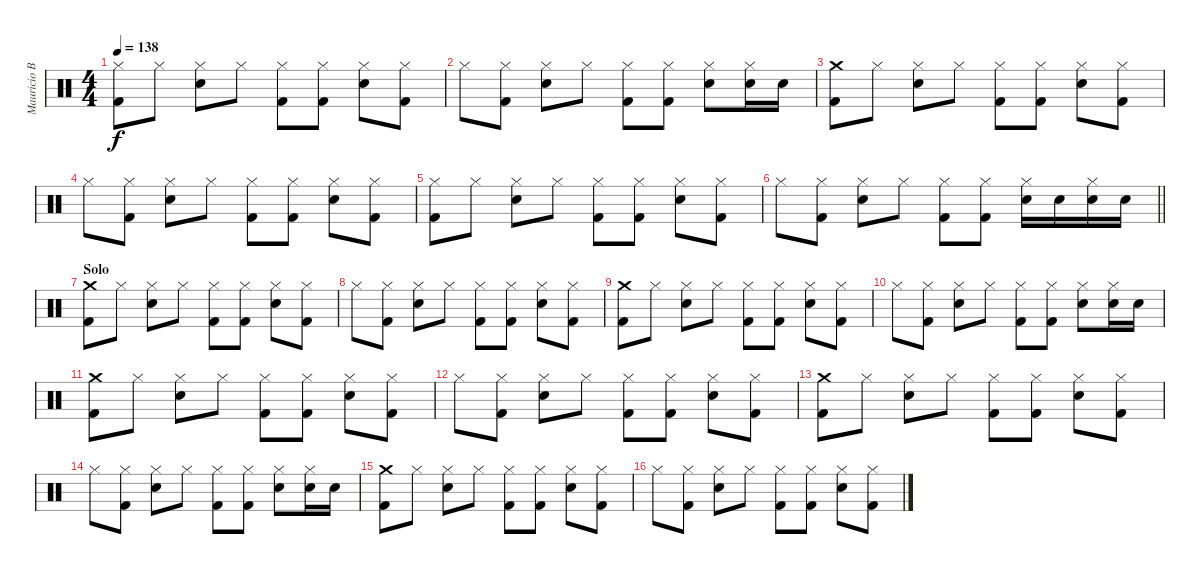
\track ("Mauricio Basualto" "Mauricio B") {instrument percussion}
\staff {score}
\articulation defaults
\ts (4 4)
\tempo 138
\clef neutral
\ks c
("Hi-Hat (closed)" "Kick (hit) 2").8{dy f} "Hi-Hat (closed)".8 ("Hi-Hat (closed)" "Snare (hit) 2").8 "Hi-Hat (closed)".8 ("Hi-Hat (closed)" "Kick (hit) 2").8 ("Hi-Hat (closed)" "Kick (hit) 2").8 ("Hi-Hat (closed)" "Snare (hit) 2").8 ("Hi-Hat (closed)" "Kick (hit) 2").8 |
"Hi-Hat (closed)".8 ("Hi-Hat (closed)" "Kick (hit) 2").8 ("Hi-Hat (closed)" "Snare (hit) 2").8 "Hi-Hat (closed)".8 ("Hi-Hat (closed)" "Kick (hit) 2").8 ("Hi-Hat (closed)" "Kick (hit) 2").8 ("Hi-Hat (closed)" "Snare (hit) 2").8 ("Hi-Hat (closed)" "Snare (hit) 2").16 "Snare (hit) 2".16 |
("Crash medium (hit)" "Kick (hit) 2").8 "Hi-Hat (closed)".8 ("Hi-Hat (closed)" "Snare (hit) 2").8 "Hi-Hat (closed)".8 ("Hi-Hat (closed)" "Kick (hit) 2").8 ("Hi-Hat (closed)" "Kick (hit) 2").8 ("Hi-Hat (closed)" "Snare (hit) 2").8 ("Hi-Hat (closed)" "Kick (hit) 2").8 |
"Hi-Hat (closed)".8 ("Hi-Hat (closed)" "Kick (hit) 2").8 ("Hi-Hat (closed)" "Snare (hit) 2").8 "Hi-Hat (closed)".8 ("Hi-Hat (closed)" "Kick (hit) 2").8 ("Hi-Hat (closed)" "Kick (hit) 2").8 ("Hi-Hat (closed)" "Snare (hit) 2").8 ("Hi-Hat (closed)" "Kick (hit) 2").8 |
("Hi-Hat (closed)" "Kick (hit) 2").8 "Hi-Hat (closed)".8 ("Hi-Hat (closed)" "Snare (hit) 2").8 "Hi-Hat (closed)".8 ("Hi-Hat (closed)" "Kick (hit) 2").8 ("Hi-Hat (closed)" "Kick (hit) 2").8 ("Hi-Hat (closed)" "Snare (hit) 2").8 ("Hi-Hat (closed)" "Kick (hit) 2").8 |
\barLineRight lightlight "Hi-Hat (closed)".8
("Hi-Hat (closed)" "Kick (hit) 2").8 ("Hi-Hat (closed)" "Snare (hit) 2").8 "Hi-Hat (closed)".8 ("Hi-Hat (closed)" "Kick (hit) 2").8 ("Hi-Hat (closed)" "Kick (hit) 2").8 ("Hi-Hat (closed)" "Snare (hit) 2").16 "Snare (hit) 2".16 ("Hi-Hat (closed)" "Snare (hit) 2").16 "Snare (hit) 2".16 |
\section ("" "Solo")
("Crash medium (hit)" "Kick (hit) 2").8 "Hi-Hat (closed)".8 ("Hi-Hat (closed)" "Snare (hit) 2").8 "Hi-Hat (closed)".8 ("Hi-Hat (closed)" "Kick (hit) 2").8 ("Hi-Hat (closed)" "Kick (hit) 2").8 ("Hi-Hat (closed)" "Snare (hit) 2").8 ("Hi-Hat (closed)" "Kick (hit) 2").8 |
"Hi-Hat (closed)".8 ("Hi-Hat (closed)" "Kick (hit) 2").8 ("Hi-Hat (closed)" "Snare (hit) 2").8 "Hi-Hat (closed)".8 ("Hi-Hat (closed)" "Kick (hit) 2").8 ("Hi-Hat (closed)" "Kick (hit) 2").8 ("Hi-Hat (closed)" "Snare (hit) 2").8 ("Hi-Hat (closed)" "Kick (hit) 2").8 |
("Crash medium (hit)" "Kick (hit) 2").8 "Hi-Hat (closed)".8 ("Hi-Hat (closed)" "Snare (hit) 2").8 "Hi-Hat (closed)".8 ("Hi-Hat (closed)" "Kick (hit) 2").8 ("Hi-Hat (closed)" "Kick (hit) 2").8 ("Hi-Hat (closed)" "Snare (hit) 2").8 ("Hi-Hat (closed)" "Kick (hit) 2").8 |
"Hi-Hat (closed)".8 ("Hi-Hat (closed)" "Kick (hit) 2").8 ("Hi-Hat (closed)" "Snare (hit) 2").8 "Hi-Hat (closed)".8 ("Hi-Hat (closed)" "Kick (hit) 2").8 ("Hi-Hat (closed)" "Kick (hit) 2").8 ("Hi-Hat (closed)" "Snare (hit) 2").8 ("Hi-Hat (closed)" "Snare (hit) 2").16 "Snare (hit) 2".16 |
("Crash medium (hit)" "Kick (hit) 2").8 "Hi-Hat (closed)".8 ("Hi-Hat (closed)" "Snare (hit) 2").8 "Hi-Hat (closed)".8 ("Hi-Hat (closed)" "Kick (hit) 2").8 ("Hi-Hat (closed)" "Kick (hit) 2").8 ("Hi-Hat (closed)" "Snare (hit) 2").8 ("Hi-Hat (closed)" "Kick (hit) 2").8 |
"Hi-Hat (closed)".8 ("Hi-Hat (closed)" "Kick (hit) 2").8 ("Hi-Hat (closed)" "Snare (hit) 2").8 "Hi-Hat (closed)".8 ("Hi-Hat (closed)" "Kick (hit) 2").8 ("Hi-Hat (closed)" "Kick (hit) 2").8 ("Hi-Hat (closed)" "Snare (hit) 2").8 ("Hi-Hat (closed)" "Kick (hit) 2").8 |
("Crash medium (hit)" "Kick (hit) 2").8 "Hi-Hat (closed)".8 ("Hi-Hat (closed)" "Snare (hit) 2").8 "Hi-Hat (closed)".8 ("Hi-Hat (closed)" "Kick (hit) 2").8 ("Hi-Hat (closed)" "Kick (hit) 2").8 ("Hi-Hat (closed)" "Snare (hit) 2").8 ("Hi-Hat (closed)" "Kick (hit) 2").8 |
"Hi-Hat (closed)".8 ("Hi-Hat (closed)" "Kick (hit) 2").8 ("Hi-Hat (closed)" "Snare (hit) 2").8 "Hi-Hat (closed)".8 ("Hi-Hat (closed)" "Kick (hit) 2").8 ("Hi-Hat (closed)" "Kick (hit) 2").8 ("Hi-Hat (closed)" "Snare (hit) 2").8 ("Hi-Hat (closed)" "Snare (hit) 2").16 "Snare (hit) 2".16 |
("Crash medium (hit)" "Kick (hit) 2").8 "Hi-Hat (closed)".8 ("Hi-Hat (closed)" "Snare (hit) 2").8 "Hi-Hat (closed)".8 ("Hi-Hat (closed)" "Kick (hit) 2").8 ("Hi-Hat (closed)" "Kick (hit) 2").8 ("Hi-Hat (closed)" "Snare (hit) 2").8 ("Hi-Hat (closed)" "Kick (hit) 2").8 |
"Hi-Hat (closed)".8 ("Hi-Hat (closed)" "Kick (hit) 2").8 ("Hi-Hat (closed)" "Snare (hit) 2").8 "Hi-Hat (closed)".8 ("Hi-Hat (closed)" "Kick (hit) 2").8 ("Hi-Hat (closed)" "Kick (hit) 2").8 ("Hi-Hat (closed)" "Snare (hit) 2").8 ("Hi-Hat (closed)" "Kick (hit) 2").8
